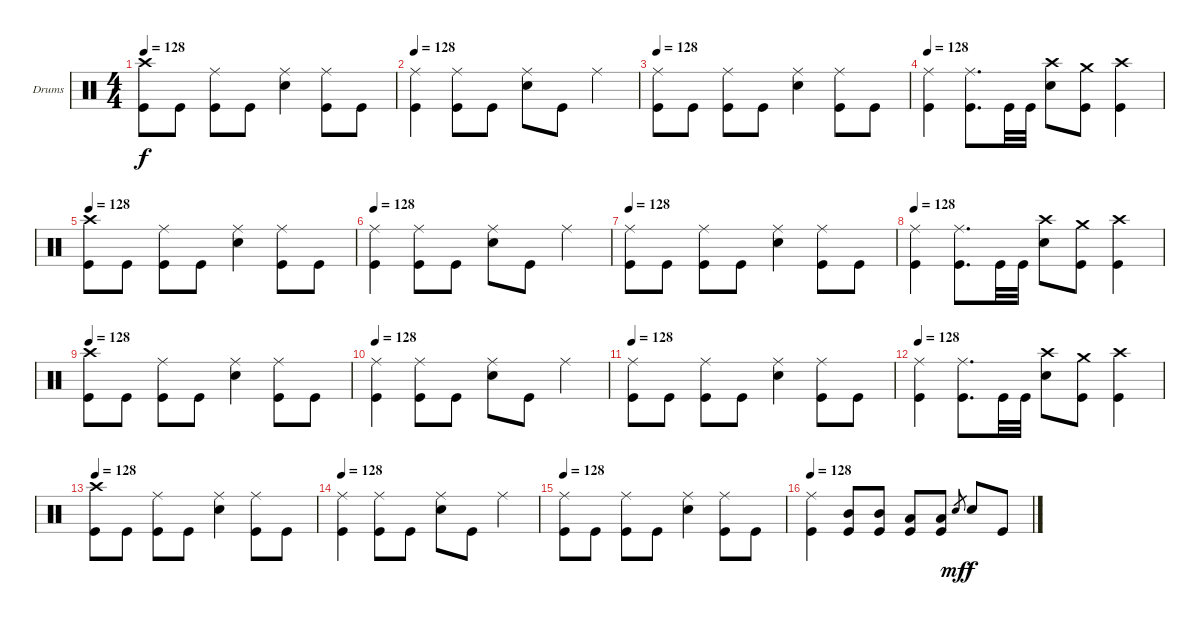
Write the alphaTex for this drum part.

\bracketExtendMode groupsimilarinstruments
\firstSystemTrackNameOrientation horizontal
\otherSystemsTrackNameOrientation horizontal
\track ("Drumkit" "Drums") {instrument percussion}
\staff {score}
\articulation defaults
\ts (4 4)
\tempo 128
\clef neutral
\ks c
("Crash high (hit)" "Kick (hit)").8{dy f} "Kick (hit)".8 ("Ride (middle)" "Kick (hit)").8 "Kick (hit)".8 ("Ride (middle)" "Snare (hit) 2").4 ("Ride (middle)" "Kick (hit)").8 "Kick (hit)".8 |
\tempo 128
("Ride (middle)" "Kick (hit)").4 ("Ride (middle)" "Kick (hit)").8 "Kick (hit)".8 ("Ride (middle)" "Snare (hit) 2").8 "Kick (hit)".8 "Ride (middle)".4 |
\tempo 128
("Ride (middle)" "Kick (hit)").8 "Kick (hit)".8 ("Ride (middle)" "Kick (hit)").8 "Kick (hit)".8 ("Ride (middle)" "Snare (hit) 2").4 ("Ride (middle)" "Kick (hit)").8 "Kick (hit)".8 |
\tempo 128
("Ride (middle)" "Kick (hit)").4 ("Ride (middle)" "Kick (hit)").8{d} "Kick (hit)".32 "Kick (hit)".32 ("Crash high (hit)" "Snare (hit) 2").8 ("Crash medium (hit)" "Kick (hit)").8 ("Crash high (hit)" "Kick (hit)").4 |
\tempo 128
("Crash high (hit)" "Kick (hit)").8 "Kick (hit)".8 ("Ride (middle)" "Kick (hit)").8 "Kick (hit)".8 ("Ride (middle)" "Snare (hit) 2").4 ("Ride (middle)" "Kick (hit)").8 "Kick (hit)".8 |
\tempo 128
("Ride (middle)" "Kick (hit)").4 ("Ride (middle)" "Kick (hit)").8 "Kick (hit)".8 ("Ride (middle)" "Snare (hit) 2").8 "Kick (hit)".8 "Ride (middle)".4 |
\tempo 128
("Ride (middle)" "Kick (hit)").8 "Kick (hit)".8 ("Ride (middle)" "Kick (hit)").8 "Kick (hit)".8 ("Ride (middle)" "Snare (hit) 2").4 ("Ride (middle)" "Kick (hit)").8 "Kick (hit)".8 |
\tempo 128
("Ride (middle)" "Kick (hit)").4 ("Ride (middle)" "Kick (hit)").8{d} "Kick (hit)".32 "Kick (hit)".32 ("Crash high (hit)" "Snare (hit) 2").8 ("Crash medium (hit)" "Kick (hit)").8 ("Crash high (hit)" "Kick (hit)").4 |
\tempo 128
("Crash high (hit)" "Kick (hit)").8 "Kick (hit)".8 ("Ride (middle)" "Kick (hit)").8 "Kick (hit)".8 ("Ride (middle)" "Snare (hit) 2").4 ("Ride (middle)" "Kick (hit)").8 "Kick (hit)".8 |
\tempo 128
("Ride (middle)" "Kick (hit)").4 ("Ride (middle)" "Kick (hit)").8 "Kick (hit)".8 ("Ride (middle)" "Snare (hit) 2").8 "Kick (hit)".8 "Ride (middle)".4 |
\tempo 128
("Ride (middle)" "Kick (hit)").8 "Kick (hit)".8 ("Ride (middle)" "Kick (hit)").8 "Kick (hit)".8 ("Ride (middle)" "Snare (hit) 2").4 ("Ride (middle)" "Kick (hit)").8 "Kick (hit)".8 |
\tempo 128
("Ride (middle)" "Kick (hit)").4 ("Ride (middle)" "Kick (hit)").8{d} "Kick (hit)".32 "Kick (hit)".32 ("Crash high (hit)" "Snare (hit) 2").8 ("Crash medium (hit)" "Kick (hit)").8 ("Crash high (hit)" "Kick (hit)").4 |
\tempo 128
("Crash high (hit)" "Kick (hit)").8 "Kick (hit)".8 ("Ride (middle)" "Kick (hit)").8 "Kick (hit)".8 ("Ride (middle)" "Snare (hit) 2").4 ("Ride (middle)" "Kick (hit)").8 "Kick (hit)".8 |
\tempo 128
("Ride (middle)" "Kick (hit)").4 ("Ride (middle)" "Kick (hit)").8 "Kick (hit)".8 ("Ride (middle)" "Snare (hit) 2").8 "Kick (hit)".8 "Ride (middle)".4 |
\tempo 128
("Ride (middle)" "Kick (hit)").8 "Kick (hit)".8 ("Ride (middle)" "Kick (hit)").8 "Kick (hit)".8 ("Ride (middle)" "Snare (hit) 2").4 ("Ride (middle)" "Kick (hit)").8 "Kick (hit)".8 |
\tempo 128
("Ride (middle)" "Kick (hit)").4 ("Kick (hit)" "Mid Tom (hit)").8 ("Kick (hit)" "Mid Tom (hit)").8 ("Kick (hit)" "Low Tom (hit)").8 ("Kick (hit)" "Low Tom (hit)").8 "Snare (hit) 2".8{gr dy mf} "Snare (hit) 2".8{dy f} "Kick (hit)".8
